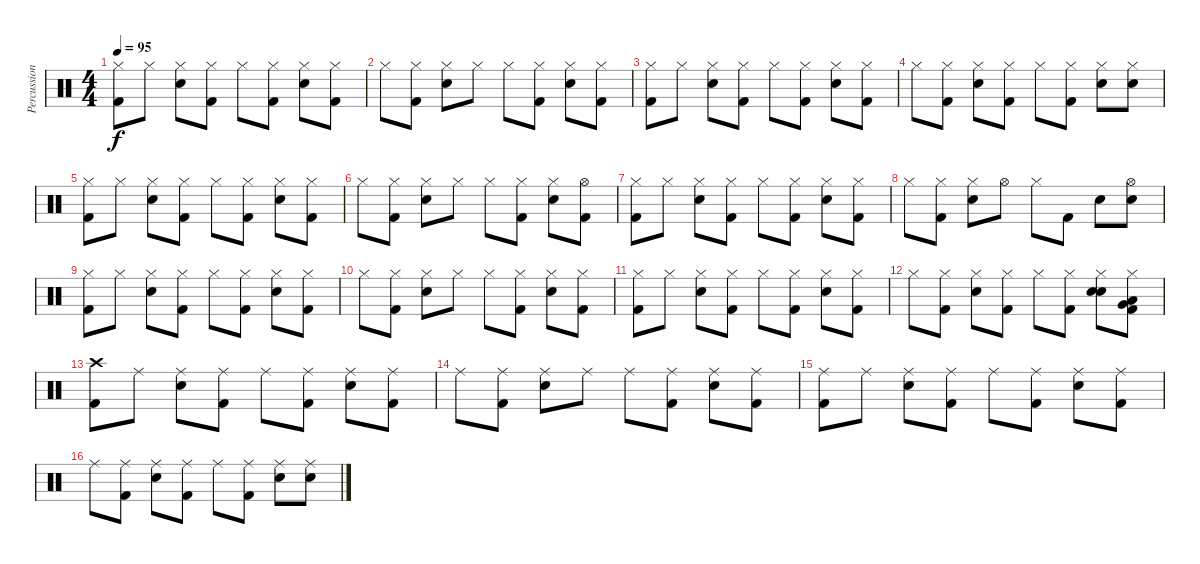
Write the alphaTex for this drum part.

\track ("Percussion" "Percussion") {instrument percussion}
\staff {score}
\articulation defaults
\ts (4 4)
\tempo 95
\clef neutral
\ks c
("Hi-Hat (closed)" "Kick (hit) 2").8{dy f} "Hi-Hat (closed)".8 ("Hi-Hat (closed)" "Snare (hit) 2").8 ("Hi-Hat (closed)" "Kick (hit) 2").8 "Hi-Hat (closed)".8 ("Hi-Hat (closed)" "Kick (hit) 2").8 ("Hi-Hat (closed)" "Snare (hit) 2").8 ("Hi-Hat (closed)" "Kick (hit) 2").8 |
"Hi-Hat (closed)".8 ("Hi-Hat (closed)" "Kick (hit) 2").8 ("Hi-Hat (closed)" "Snare (hit) 2").8 "Hi-Hat (closed)".8 "Hi-Hat (closed)".8 ("Hi-Hat (closed)" "Kick (hit) 2").8 ("Hi-Hat (closed)" "Snare (hit) 2").8 ("Hi-Hat (closed)" "Kick (hit) 2").8 |
("Hi-Hat (closed)" "Kick (hit) 2").8 "Hi-Hat (closed)".8 ("Hi-Hat (closed)" "Snare (hit) 2").8 ("Hi-Hat (closed)" "Kick (hit) 2").8 "Hi-Hat (closed)".8 ("Hi-Hat (closed)" "Kick (hit) 2").8 ("Hi-Hat (closed)" "Snare (hit) 2").8 ("Hi-Hat (closed)" "Kick (hit) 2").8 |
"Hi-Hat (closed)".8 ("Hi-Hat (closed)" "Kick (hit) 2").8 ("Hi-Hat (closed)" "Snare (hit) 2").8 ("Hi-Hat (closed)" "Kick (hit) 2").8 "Hi-Hat (closed)".8 ("Hi-Hat (closed)" "Kick (hit) 2").8 ("Hi-Hat (closed)" "Snare (hit) 2").8 ("Hi-Hat (closed)" "Snare (hit) 2").8 |
("Hi-Hat (closed)" "Kick (hit) 2").8 "Hi-Hat (closed)".8 ("Hi-Hat (closed)" "Snare (hit) 2").8 ("Hi-Hat (closed)" "Kick (hit) 2").8 "Hi-Hat (closed)".8 ("Hi-Hat (closed)" "Kick (hit) 2").8 ("Hi-Hat (closed)" "Snare (hit) 2").8 ("Hi-Hat (closed)" "Kick (hit) 2").8 |
"Hi-Hat (closed)".8 ("Hi-Hat (closed)" "Kick (hit) 2").8 ("Hi-Hat (closed)" "Snare (hit) 2").8 "Hi-Hat (closed)".8 "Hi-Hat (closed)".8 ("Hi-Hat (closed)" "Kick (hit) 2").8 ("Hi-Hat (closed)" "Snare (hit) 2").8 ("Hi-Hat (open)" "Kick (hit) 2").8 |
("Hi-Hat (closed)" "Kick (hit) 2").8 "Hi-Hat (closed)".8 ("Hi-Hat (closed)" "Snare (hit) 2").8 ("Hi-Hat (closed)" "Kick (hit) 2").8 "Hi-Hat (closed)".8 ("Hi-Hat (closed)" "Kick (hit) 2").8 ("Hi-Hat (closed)" "Snare (hit) 2").8 ("Hi-Hat (closed)" "Kick (hit) 2").8 |
"Hi-Hat (closed)".8 ("Hi-Hat (closed)" "Kick (hit) 2").8 ("Hi-Hat (closed)" "Snare (hit) 2").8 "Hi-Hat (open)".8 "Hi-Hat (closed)".8 "Kick (hit) 2".8 "Snare (hit) 2".8 ("Hi-Hat (open)" "Snare (hit) 2").8 |
("Hi-Hat (closed)" "Kick (hit) 2").8 "Hi-Hat (closed)".8 ("Hi-Hat (closed)" "Snare (hit) 2").8 ("Hi-Hat (closed)" "Kick (hit) 2").8 "Hi-Hat (closed)".8 ("Hi-Hat (closed)" "Kick (hit) 2").8 ("Hi-Hat (closed)" "Snare (hit) 2").8 ("Hi-Hat (closed)" "Kick (hit) 2").8 |
"Hi-Hat (closed)".8 ("Hi-Hat (closed)" "Kick (hit) 2").8 ("Hi-Hat (closed)" "Snare (hit) 2").8 "Hi-Hat (closed)".8 "Hi-Hat (closed)".8 ("Hi-Hat (closed)" "Kick (hit) 2").8 ("Hi-Hat (closed)" "Snare (hit) 2").8 ("Hi-Hat (closed)" "Kick (hit) 2").8 |
("Hi-Hat (closed)" "Kick (hit) 2").8 "Hi-Hat (closed)".8 ("Hi-Hat (closed)" "Snare (hit) 2").8 ("Hi-Hat (closed)" "Kick (hit) 2").8 "Hi-Hat (closed)".8 ("Hi-Hat (closed)" "Kick (hit) 2").8 ("Hi-Hat (closed)" "Snare (hit) 2").8 ("Hi-Hat (closed)" "Kick (hit) 2").8 |
"Hi-Hat (closed)".8 ("Hi-Hat (closed)" "Kick (hit) 2").8 ("Hi-Hat (closed)" "Snare (hit) 2").8 ("Hi-Hat (closed)" "Kick (hit) 2").8 "Hi-Hat (closed)".8 ("Hi-Hat (closed)" "Kick (hit) 2").8 ("Hi-Hat (closed)" "Electric Snare (hit)" "Snare (hit) 2").8 ("Hi-Hat (closed)" "Low Floor Tom (hit)" "Very Low Tom (hit)" "Kick (hit) 2").8 |
("Crash high (hit)" "Kick (hit) 2").8 "Ride (middle)".8 ("Ride (middle)" "Snare (hit) 2").8 ("Ride (middle)" "Kick (hit) 2").8 "Ride (middle)".8 ("Ride (middle)" "Kick (hit) 2").8 ("Ride (middle)" "Snare (hit) 2").8 ("Ride (middle)" "Kick (hit) 2").8 |
"Ride (middle)".8 ("Ride (middle)" "Kick (hit) 2").8 ("Ride (middle)" "Snare (hit) 2").8 "Ride (middle)".8 "Ride (middle)".8 ("Ride (middle)" "Kick (hit) 2").8 ("Ride (middle)" "Snare (hit) 2").8 ("Ride (middle)" "Kick (hit) 2").8 |
("Ride (middle)" "Kick (hit) 2").8 "Ride (middle)".8 ("Ride (middle)" "Snare (hit) 2").8 ("Ride (middle)" "Kick (hit) 2").8 "Ride (middle)".8 ("Ride (middle)" "Kick (hit) 2").8 ("Ride (middle)" "Snare (hit) 2").8 ("Ride (middle)" "Kick (hit) 2").8 |
"Ride (middle)".8 ("Ride (middle)" "Kick (hit) 2").8 ("Ride (middle)" "Snare (hit) 2").8 ("Ride (middle)" "Kick (hit) 2").8 "Ride (middle)".8 ("Ride (middle)" "Kick (hit) 2").8 ("Ride (middle)" "Snare (hit) 2").8 ("Ride (middle)" "Snare (hit) 2").8
